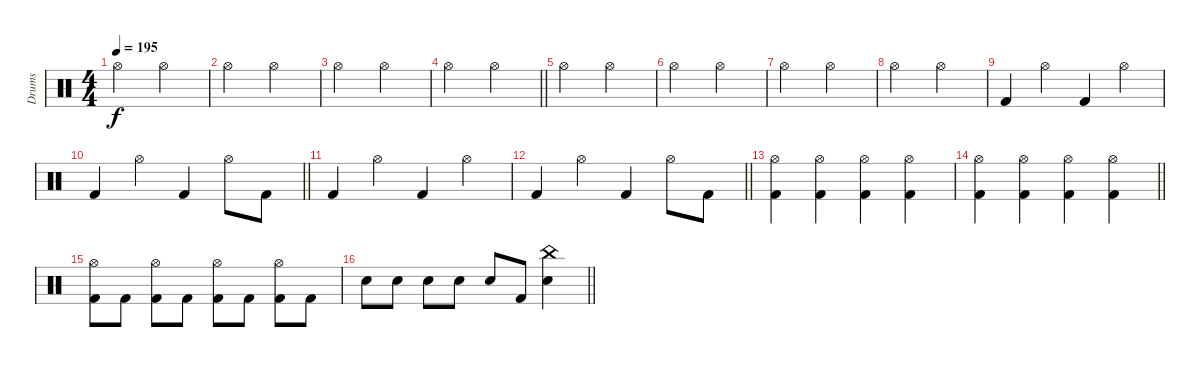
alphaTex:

\track ("Drums" "Drums") {instrument percussion}
\staff {score}
\articulation defaults
\ts (4 4)
\tempo 195
\clef neutral
\ks c "Hi-Hat (open)".2{dy f} "Hi-Hat (open)".2
|
"Hi-Hat (open)".2 "Hi-Hat (open)".2 |
"Hi-Hat (open)".2 "Hi-Hat (open)".2 |
\barLineRight lightlight "Hi-Hat (open)".2 "Hi-Hat (open)".2
|
"Hi-Hat (open)".2 "Hi-Hat (open)".2 |
"Hi-Hat (open)".2 "Hi-Hat (open)".2 |
"Hi-Hat (open)".2 "Hi-Hat (open)".2 |
"Hi-Hat (open)".2 "Hi-Hat (open)".2 |
"Kick (hit) 2".4 "Hi-Hat (open)".4 "Kick (hit) 2".4 "Hi-Hat (open)".4 |
\barLineRight lightlight "Kick (hit) 2".4 "Hi-Hat (open)".4 "Kick (hit) 2".4 "Hi-Hat (open)".8 "Kick (hit) 2".8
|
"Kick (hit) 2".4 "Hi-Hat (open)".4 "Kick (hit) 2".4 "Hi-Hat (open)".4 |
\barLineRight lightlight "Kick (hit) 2".4 "Hi-Hat (open)".4 "Kick (hit) 2".4 "Hi-Hat (open)".8 "Kick (hit) 2".8
|
("Hi-Hat (open)" "Kick (hit) 2").4 ("Hi-Hat (open)" "Kick (hit) 2").4 ("Hi-Hat (open)" "Kick (hit) 2").4 ("Hi-Hat (open)" "Kick (hit) 2").4 |
\barLineRight lightlight
("Hi-Hat (open)" "Kick (hit) 2").4 ("Hi-Hat (open)" "Kick (hit) 2").4 ("Hi-Hat (open)" "Kick (hit) 2").4 ("Hi-Hat (open)" "Kick (hit) 2").4 |
("Hi-Hat (open)" "Kick (hit) 2").8 "Kick (hit) 2".8 ("Hi-Hat (open)" "Kick (hit) 2").8 "Kick (hit) 2".8 ("Hi-Hat (open)" "Kick (hit) 2").8 "Kick (hit) 2".8 ("Hi-Hat (open)" "Kick (hit) 2").8 "Kick (hit) 2".8 |
\barLineRight lightlight "Electric Snare (hit)".8 "Electric Snare (hit)".8 "Electric Snare (hit)".8 "Electric Snare (hit)".8 "Electric Snare (hit)".8 "Kick (hit) 2".8
("China (hit)" "Electric Snare (hit)").4
